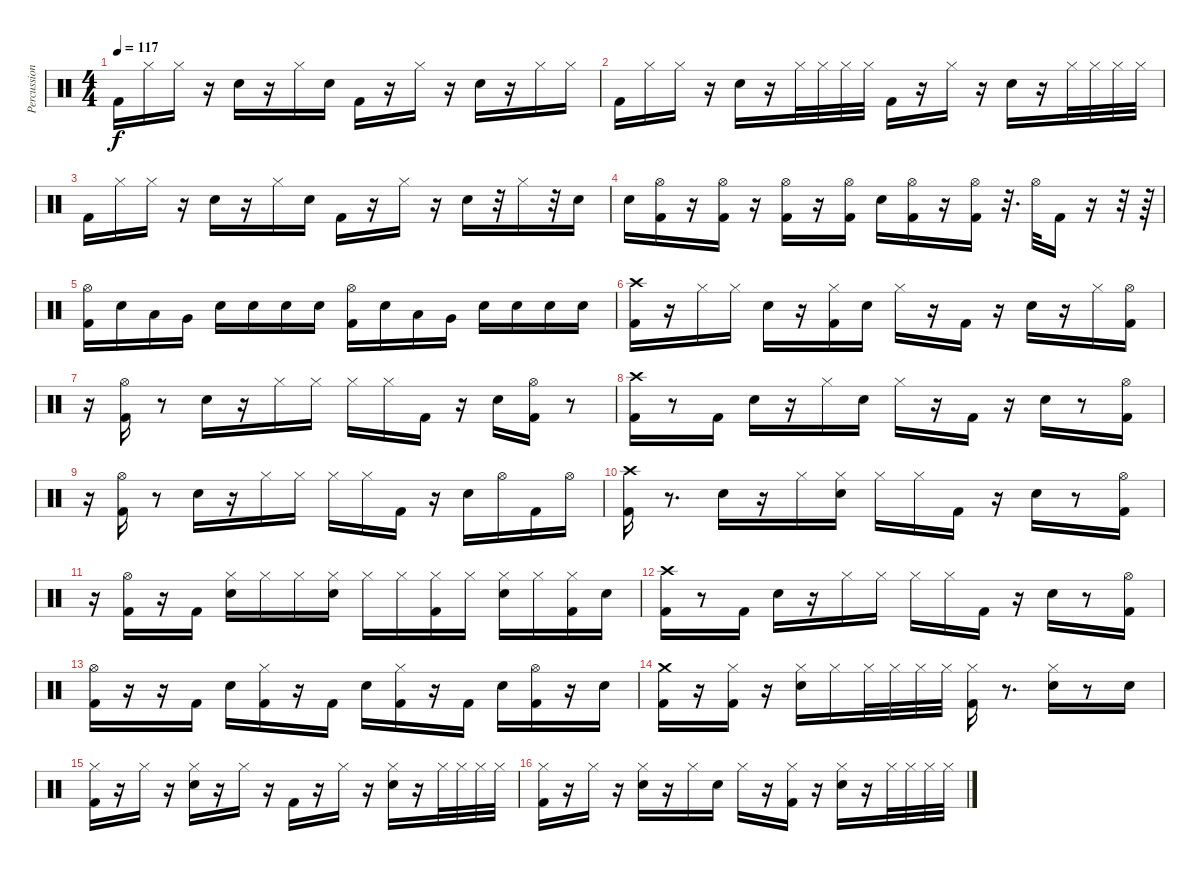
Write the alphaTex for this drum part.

\track ("Percussion" "Percussion") {instrument percussion}
\staff {score}
\articulation defaults
\ts (4 4)
\tempo 117
\clef neutral
\ks c "Kick (hit) 2".16{dy f} "Hi-Hat (closed)".16 "Hi-Hat (closed)".16
r.16 "Snare (hit) 2".16 r.16 "Hi-Hat (closed)".16 "Snare (hit) 2".16 "Kick (hit) 2".16 r.16 "Hi-Hat (closed)".16 r.16 "Snare (hit) 2".16 r.16 "Hi-Hat (closed)".16 "Hi-Hat (closed)".16 |
"Kick (hit) 2".16 "Hi-Hat (closed)".16 "Hi-Hat (closed)".16 r.16 "Snare (hit) 2".16 r.16 "Hi-Hat (closed)".32 "Hi-Hat (closed)".32 "Hi-Hat (closed)".32 "Hi-Hat (closed)".32 "Kick (hit) 2".16 r.16 "Hi-Hat (closed)".16 r.16 "Snare (hit) 2".16 r.16 "Hi-Hat (closed)".32 "Hi-Hat (closed)".32 "Hi-Hat (closed)".32 "Hi-Hat (closed)".32 |
"Kick (hit) 2".16 "Hi-Hat (closed)".16 "Hi-Hat (closed)".16 r.16 "Snare (hit) 2".16 r.16 "Hi-Hat (closed)".16 "Snare (hit) 2".16 "Kick (hit) 2".16 r.16 "Hi-Hat (closed)".16 r.16 "Snare (hit) 2".16 r.32 "Hi-Hat (closed)".16 r.32 "Snare (hit) 2".16 |
"Snare (hit) 2".16 ("Kick (hit) 2" "Hi-Hat (open)").16 r.16 ("Kick (hit) 2" "Hi-Hat (open)").16 r.16 ("Kick (hit) 2" "Hi-Hat (open)").16 r.16 ("Kick (hit) 2" "Hi-Hat (open)").16 "Snare (hit) 2".16 ("Kick (hit) 2" "Hi-Hat (open)").16 r.16 ("Kick (hit) 2" "Hi-Hat (open)").16 r.32{d} "Hi-Hat (open)".32 "Kick (hit) 2".16 r.16 r.32 r.64 |
("Kick (hit) 2" "Hi-Hat (open)").16 "Snare (hit) 2".16 "Low Tom (hit)".16 "Very Low Tom (hit)".16 "Snare (hit) 2".16 "Snare (hit) 2".16 "Snare (hit) 2".16 "Snare (hit) 2".16 ("Kick (hit) 2" "Hi-Hat (open)").16 "Snare (hit) 2".16 "Low Tom (hit)".16 "Very Low Tom (hit)".16 "Snare (hit) 2".16 "Snare (hit) 2".16 "Snare (hit) 2".16 "Snare (hit) 2".16 |
("Kick (hit) 2" "Crash high (hit)").16 r.16 "Hi-Hat (closed)".16 "Hi-Hat (closed)".16 "Snare (hit) 2".16 r.16 ("Kick (hit) 2" "Hi-Hat (closed)").16 "Snare (hit) 2".16 "Hi-Hat (closed)".16 r.16 "Kick (hit) 2".16 r.16 "Snare (hit) 2".16 r.16 "Hi-Hat (closed)".16 ("Hi-Hat (open)" "Kick (hit) 2").16 |
r.16 ("Kick (hit) 2" "Hi-Hat (open)").16 r.8 "Snare (hit) 2".16 r.16 "Hi-Hat (closed)".16 "Hi-Hat (closed)".16 "Hi-Hat (closed)".16 "Hi-Hat (closed)".16 "Kick (hit) 2".16 r.16 "Snare (hit) 2".16 ("Hi-Hat (open)" "Kick (hit) 2").16 r.8 |
("Kick (hit) 2" "Crash high (hit)").16 r.8 "Kick (hit) 2".16 "Snare (hit) 2".16 r.16 "Hi-Hat (closed)".16 "Snare (hit) 2".16 "Hi-Hat (closed)".16 r.16 "Kick (hit) 2".16 r.16 "Snare (hit) 2".16 r.8 ("Kick (hit) 2" "Hi-Hat (open)").16 |
r.16 ("Kick (hit) 2" "Hi-Hat (open)").16 r.8 "Snare (hit) 2".16 r.16 "Hi-Hat (closed)".16 "Hi-Hat (closed)".16 "Hi-Hat (closed)".16 "Hi-Hat (closed)".16 "Kick (hit) 2".16 r.16 "Snare (hit) 2".16 "Hi-Hat (open)".16 "Kick (hit) 2".16 "Hi-Hat (open)".16 |
("Kick (hit) 2" "Crash high (hit)").16 r.8{d} "Snare (hit) 2".16 r.16 "Hi-Hat (closed)".16 ("Snare (hit) 2" "Hi-Hat (closed)").16 "Hi-Hat (closed)".16 "Hi-Hat (closed)".16 "Kick (hit) 2".16 r.16 "Snare (hit) 2".16 r.8 ("Kick (hit) 2" "Hi-Hat (open)").16 |
r.16 ("Kick (hit) 2" "Hi-Hat (open)").16 r.16 "Kick (hit) 2".16 ("Snare (hit) 2" "Hi-Hat (closed)").16 "Hi-Hat (closed)".16 "Hi-Hat (closed)".16 ("Hi-Hat (closed)" "Snare (hit) 2").16 "Hi-Hat (closed)".16 "Hi-Hat (closed)".16 ("Hi-Hat (closed)" "Kick (hit) 2").16 "Hi-Hat (closed)".16 ("Snare (hit) 2" "Hi-Hat (closed)").16 "Hi-Hat (closed)".16 ("Kick (hit) 2" "Hi-Hat (closed)").16 "Snare (hit) 2".16 |
("Kick (hit) 2" "Crash high (hit)").16 r.8 "Kick (hit) 2".16 "Snare (hit) 2".16 r.16 "Hi-Hat (closed)".16 "Hi-Hat (closed)".16 "Hi-Hat (closed)".16 "Hi-Hat (closed)".16 "Kick (hit) 2".16 r.16 "Snare (hit) 2".16 r.8 ("Kick (hit) 2" "Hi-Hat (open)").16 |
("Kick (hit) 2" "Hi-Hat (open)").16 r.16 r.16 "Kick (hit) 2".16 "Snare (hit) 2".16 ("Kick (hit) 2" "Hi-Hat (closed)").16 r.16 "Kick (hit) 2".16 "Snare (hit) 2".16 ("Kick (hit) 2" "Hi-Hat (closed)").16 r.16 "Kick (hit) 2".16 "Snare (hit) 2".16 ("Kick (hit) 2" "Hi-Hat (open)").16 r.16 "Snare (hit) 2".16 |
("Kick (hit) 2" "Crash medium (hit)").16 r.16 ("Hi-Hat (closed)" "Kick (hit) 2").16 r.16 ("Hi-Hat (closed)" "Snare (hit) 2").16 "Hi-Hat (closed)".16 "Hi-Hat (closed)".32 "Hi-Hat (closed)".32 "Hi-Hat (closed)".32 "Hi-Hat (closed)".32 ("Kick (hit) 2" "Hi-Hat (closed)").16 r.8{d} ("Hi-Hat (closed)" "Snare (hit) 2").16 r.8 "Snare (hit) 2".16 |
("Kick (hit) 2" "Hi-Hat (closed)").16 r.16 "Hi-Hat (closed)".16 r.16 ("Hi-Hat (closed)" "Snare (hit) 2").16 r.16 "Hi-Hat (closed)".16 r.16 "Kick (hit) 2".16 r.16 "Hi-Hat (closed)".16 r.16 ("Snare (hit) 2" "Hi-Hat (closed)").16 r.16 "Hi-Hat (closed)".32 "Hi-Hat (closed)".32 "Hi-Hat (closed)".32 "Hi-Hat (closed)".32 |
("Kick (hit) 2" "Hi-Hat (closed)").16 r.16 "Hi-Hat (closed)".16 r.16 ("Snare (hit) 2" "Hi-Hat (closed)").16 r.16 "Hi-Hat (closed)".16 "Snare (hit) 2".16 "Hi-Hat (closed)".16 r.16 ("Kick (hit) 2" "Hi-Hat (closed)").16 r.16 ("Snare (hit) 2" "Hi-Hat (closed)").16 r.16 "Hi-Hat (closed)".32 "Hi-Hat (closed)".32 "Hi-Hat (closed)".32 "Hi-Hat (closed)".32
